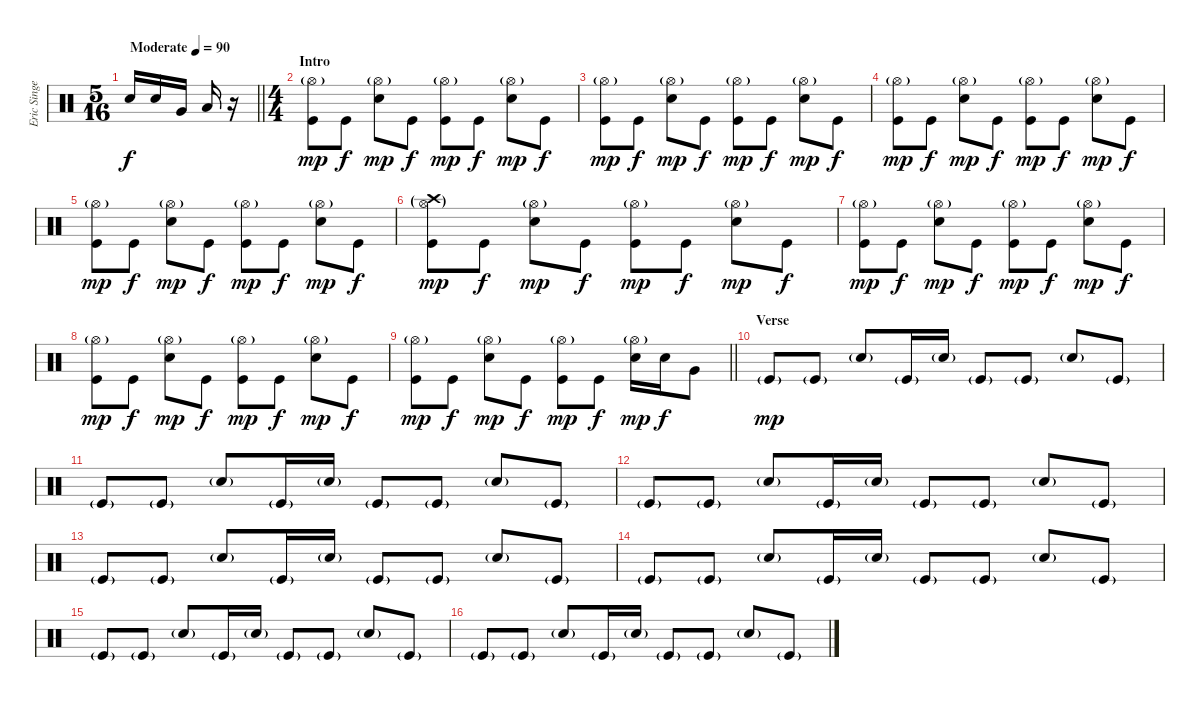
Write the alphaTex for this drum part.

\track ("Eric Singer (Drums)" "Eric Singe") {instrument percussion}
\staff {score}
\articulation defaults
\ts (5 16)
\tempo (90 "Moderate")
\clef neutral
\barLineRight lightlight
\ks c "Snare (hit) 2".16{dy f} "Snare (hit) 2".16 "Very Low Tom (hit)".16 "Low Floor Tom (hit)".16
r.16 |
\ts (4 4)
\section ("" "Intro")
("Hi-Hat (open)"{g} "Kick (hit)").8{dy mp} "Kick (hit)".8{dy f} ("Hi-Hat (open)"{g} "Snare (hit) 2").8{dy mp} "Kick (hit)".8{dy f} ("Hi-Hat (open)"{g} "Kick (hit)").8{dy mp} "Kick (hit)".8{dy f} ("Hi-Hat (open)"{g} "Snare (hit) 2").8{dy mp} "Kick (hit)".8{dy f} |
("Hi-Hat (open)"{g} "Kick (hit)").8{dy mp} "Kick (hit)".8{dy f} ("Hi-Hat (open)"{g} "Snare (hit) 2").8{dy mp} "Kick (hit)".8{dy f} ("Hi-Hat (open)"{g} "Kick (hit)").8{dy mp} "Kick (hit)".8{dy f} ("Hi-Hat (open)"{g} "Snare (hit) 2").8{dy mp} "Kick (hit)".8{dy f} |
("Hi-Hat (open)"{g} "Kick (hit)").8{dy mp} "Kick (hit)".8{dy f} ("Hi-Hat (open)"{g} "Snare (hit) 2").8{dy mp} "Kick (hit)".8{dy f} ("Hi-Hat (open)"{g} "Kick (hit)").8{dy mp} "Kick (hit)".8{dy f} ("Hi-Hat (open)"{g} "Snare (hit) 2").8{dy mp} "Kick (hit)".8{dy f} |
("Hi-Hat (open)"{g} "Kick (hit)").8{dy mp} "Kick (hit)".8{dy f} ("Hi-Hat (open)"{g} "Snare (hit) 2").8{dy mp} "Kick (hit)".8{dy f} ("Hi-Hat (open)"{g} "Kick (hit)").8{dy mp} "Kick (hit)".8{dy f} ("Hi-Hat (open)"{g} "Snare (hit) 2").8{dy mp} "Kick (hit)".8{dy f} |
("Crash high (hit)"{g} "Hi-Hat (open)"{g} "Kick (hit)").8{dy mp} "Kick (hit)".8{dy f} ("Hi-Hat (open)"{g} "Snare (hit) 2").8{dy mp} "Kick (hit)".8{dy f} ("Hi-Hat (open)"{g} "Kick (hit)").8{dy mp} "Kick (hit)".8{dy f} ("Hi-Hat (open)"{g} "Snare (hit) 2").8{dy mp} "Kick (hit)".8{dy f} |
("Hi-Hat (open)"{g} "Kick (hit)").8{dy mp} "Kick (hit)".8{dy f} ("Hi-Hat (open)"{g} "Snare (hit) 2").8{dy mp} "Kick (hit)".8{dy f} ("Hi-Hat (open)"{g} "Kick (hit)").8{dy mp} "Kick (hit)".8{dy f} ("Hi-Hat (open)"{g} "Snare (hit) 2").8{dy mp} "Kick (hit)".8{dy f} |
("Hi-Hat (open)"{g} "Kick (hit)").8{dy mp} "Kick (hit)".8{dy f} ("Hi-Hat (open)"{g} "Snare (hit) 2").8{dy mp} "Kick (hit)".8{dy f} ("Hi-Hat (open)"{g} "Kick (hit)").8{dy mp} "Kick (hit)".8{dy f} ("Hi-Hat (open)"{g} "Snare (hit) 2").8{dy mp} "Kick (hit)".8{dy f} |
\barLineRight lightlight
("Hi-Hat (open)"{g} "Kick (hit)").8{dy mp} "Kick (hit)".8{dy f} ("Hi-Hat (open)"{g} "Snare (hit) 2").8{dy mp} "Kick (hit)".8{dy f} ("Hi-Hat (open)"{g} "Kick (hit)").8{dy mp} "Kick (hit)".8{dy f} ("Hi-Hat (open)"{g} "Snare (hit) 2").16{dy mp} "Snare (hit) 2".16{dy f} "Very Low Tom (hit)".8 |
\section ("" "Verse")
"Kick (hit)"{g}.8{dy mp} "Kick (hit)"{g}.8 "Snare (hit) 2"{g}.8 "Kick (hit)"{g}.16 "Snare (hit) 2"{g}.16 "Kick (hit)"{g}.8 "Kick (hit)"{g}.8 "Snare (hit) 2"{g}.8 "Kick (hit)"{g}.8 |
"Kick (hit)"{g}.8 "Kick (hit)"{g}.8 "Snare (hit) 2"{g}.8 "Kick (hit)"{g}.16 "Snare (hit) 2"{g}.16 "Kick (hit)"{g}.8 "Kick (hit)"{g}.8 "Snare (hit) 2"{g}.8 "Kick (hit)"{g}.8 |
"Kick (hit)"{g}.8 "Kick (hit)"{g}.8 "Snare (hit) 2"{g}.8 "Kick (hit)"{g}.16 "Snare (hit) 2"{g}.16 "Kick (hit)"{g}.8 "Kick (hit)"{g}.8 "Snare (hit) 2"{g}.8 "Kick (hit)"{g}.8 |
"Kick (hit)"{g}.8 "Kick (hit)"{g}.8 "Snare (hit) 2"{g}.8 "Kick (hit)"{g}.16 "Snare (hit) 2"{g}.16 "Kick (hit)"{g}.8 "Kick (hit)"{g}.8 "Snare (hit) 2"{g}.8 "Kick (hit)"{g}.8 |
"Kick (hit)"{g}.8 "Kick (hit)"{g}.8 "Snare (hit) 2"{g}.8 "Kick (hit)"{g}.16 "Snare (hit) 2"{g}.16 "Kick (hit)"{g}.8 "Kick (hit)"{g}.8 "Snare (hit) 2"{g}.8 "Kick (hit)"{g}.8 |
"Kick (hit)"{g}.8 "Kick (hit)"{g}.8 "Snare (hit) 2"{g}.8 "Kick (hit)"{g}.16 "Snare (hit) 2"{g}.16 "Kick (hit)"{g}.8 "Kick (hit)"{g}.8 "Snare (hit) 2"{g}.8 "Kick (hit)"{g}.8 |
"Kick (hit)"{g}.8 "Kick (hit)"{g}.8 "Snare (hit) 2"{g}.8 "Kick (hit)"{g}.16 "Snare (hit) 2"{g}.16 "Kick (hit)"{g}.8 "Kick (hit)"{g}.8 "Snare (hit) 2"{g}.8 "Kick (hit)"{g}.8
